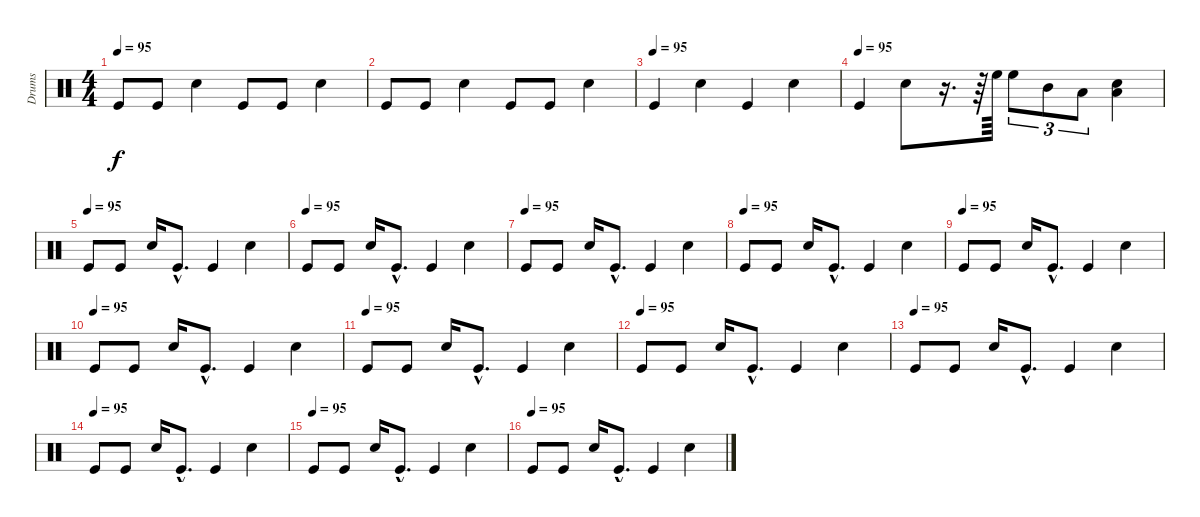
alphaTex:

\track ("Drums" "Drums") {instrument percussion}
\staff {score}
\articulation defaults
\ts (4 4)
\tempo 95
\clef neutral
\ks c "Kick (hit)".8{dy f} "Kick (hit)".8 "Snare (hit) 2".4 "Kick (hit)".8 "Kick (hit)".8 "Snare (hit) 2".4
|
"Kick (hit)".8 "Kick (hit)".8 "Snare (hit) 2".4 "Kick (hit)".8 "Kick (hit)".8 "Snare (hit) 2".4 |
\tempo (95)
"Kick (hit)".4 "Snare (hit) 2".4 "Kick (hit)".4 "Snare (hit) 2".4 |
\tempo (95)
"Kick (hit)".4 "Snare (hit) 2".8 r.16{d} r.64 "High Floor Tom (hit)".64 "High Floor Tom (hit)".8{tu (3 2)} "Mid Tom (hit)".8{tu (3 2)} "Low Tom (hit)".8{tu (3 2)} ("Low Floor Tom (hit)" "Snare (hit) 2").4 |
\tempo (95)
"Kick (hit)".8 "Kick (hit)".8 "Snare (hit) 2".16 "Kick (hit)"{hac}.8{d} "Kick (hit)".4 "Snare (hit) 2".4 |
\tempo (95)
"Kick (hit)".8 "Kick (hit)".8 "Snare (hit) 2".16 "Kick (hit)"{hac}.8{d} "Kick (hit)".4 "Snare (hit) 2".4 |
\tempo (95)
"Kick (hit)".8 "Kick (hit)".8 "Snare (hit) 2".16 "Kick (hit)"{hac}.8{d} "Kick (hit)".4 "Snare (hit) 2".4 |
\tempo (95)
"Kick (hit)".8 "Kick (hit)".8 "Snare (hit) 2".16 "Kick (hit)"{hac}.8{d} "Kick (hit)".4 "Snare (hit) 2".4 |
\tempo (95)
"Kick (hit)".8 "Kick (hit)".8 "Snare (hit) 2".16 "Kick (hit)"{hac}.8{d} "Kick (hit)".4 "Snare (hit) 2".4 |
\tempo (95)
"Kick (hit)".8 "Kick (hit)".8 "Snare (hit) 2".16 "Kick (hit)"{hac}.8{d} "Kick (hit)".4 "Snare (hit) 2".4 |
\tempo (95)
"Kick (hit)".8 "Kick (hit)".8 "Snare (hit) 2".16 "Kick (hit)"{hac}.8{d} "Kick (hit)".4 "Snare (hit) 2".4 |
\tempo (95)
"Kick (hit)".8 "Kick (hit)".8 "Snare (hit) 2".16 "Kick (hit)"{hac}.8{d} "Kick (hit)".4 "Snare (hit) 2".4 |
\tempo (95)
"Kick (hit)".8 "Kick (hit)".8 "Snare (hit) 2".16 "Kick (hit)"{hac}.8{d} "Kick (hit)".4 "Snare (hit) 2".4 |
\tempo (95)
"Kick (hit)".8 "Kick (hit)".8 "Snare (hit) 2".16 "Kick (hit)"{hac}.8{d} "Kick (hit)".4 "Snare (hit) 2".4 |
\tempo (95)
"Kick (hit)".8 "Kick (hit)".8 "Snare (hit) 2".16 "Kick (hit)"{hac}.8{d} "Kick (hit)".4 "Snare (hit) 2".4 |
\tempo (95)
"Kick (hit)".8 "Kick (hit)".8 "Snare (hit) 2".16 "Kick (hit)"{hac}.8{d} "Kick (hit)".4 "Snare (hit) 2".4
